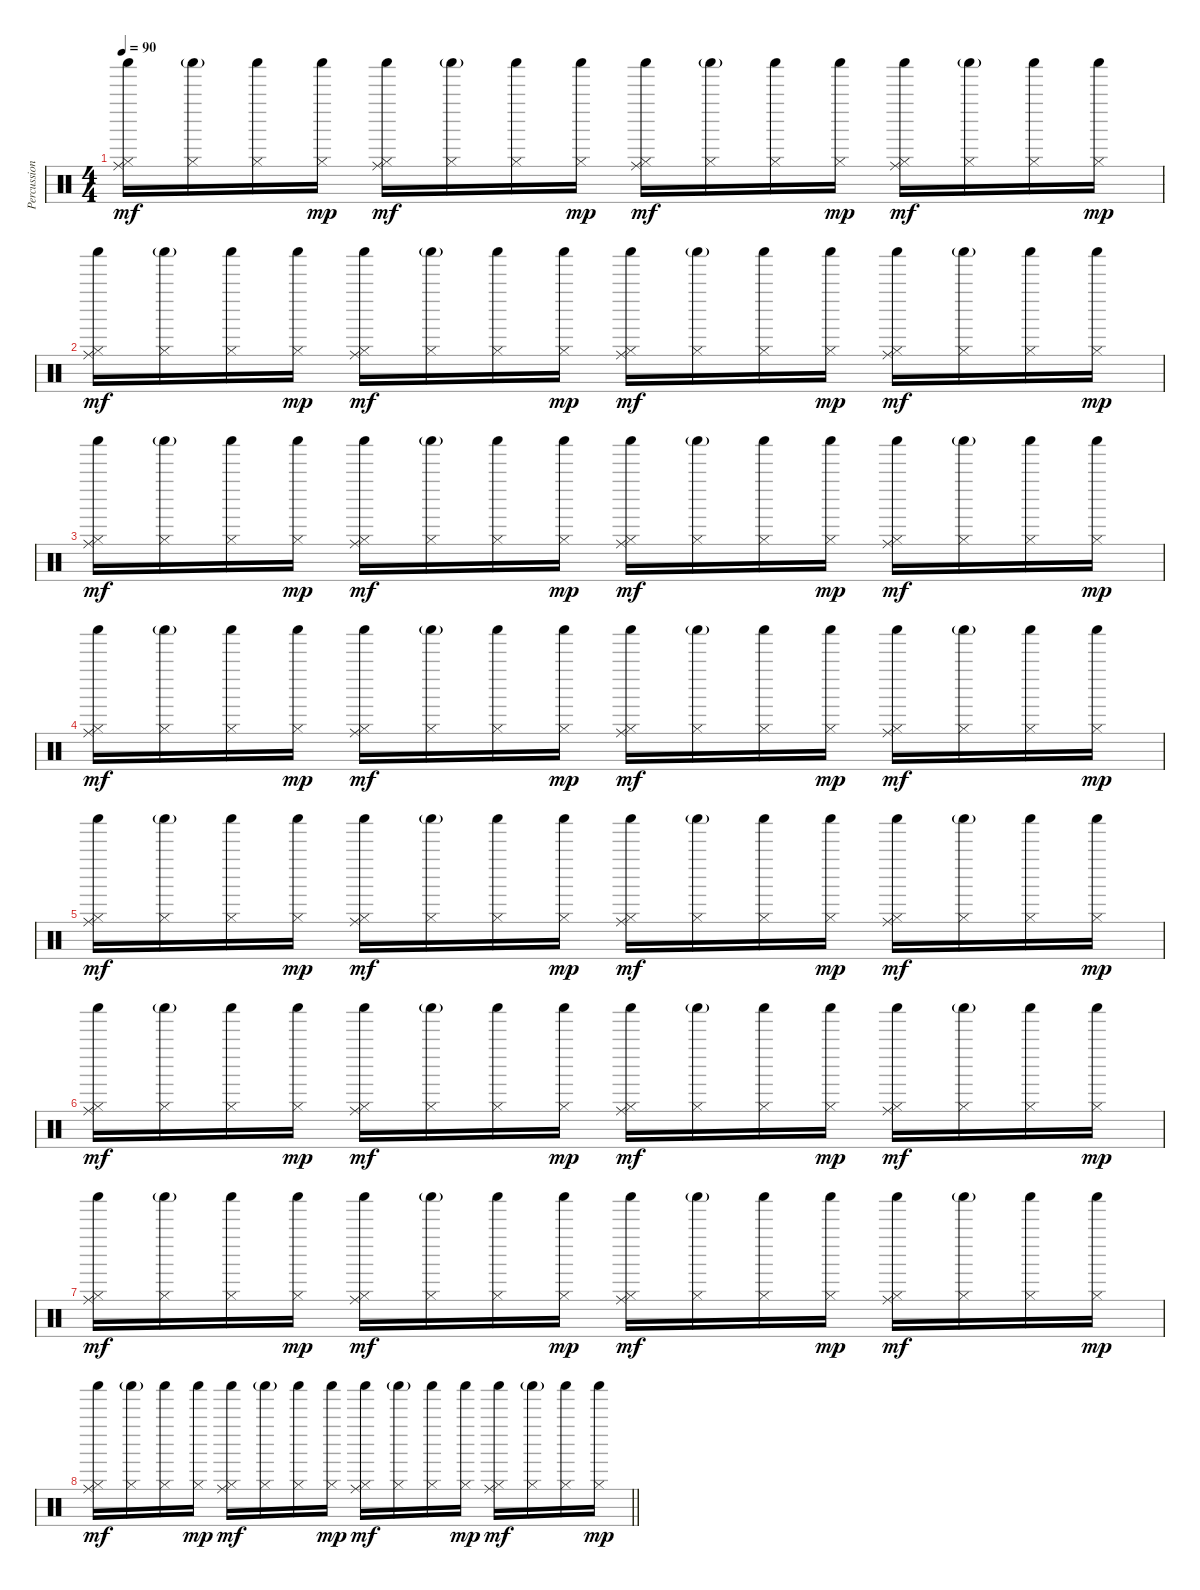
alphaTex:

\track ("Percussion (Chris Maitland)" "Percussion") {instrument percussion}
\staff {score}
\articulation defaults
\ts (4 4)
\tempo 90
\clef neutral
\ks c
("Ride (middle)" "Shaker (hit)" "Hi-Hat (closed)").16{dy mf} ("Shaker (hit)"{g} "Hi-Hat (closed)").16 ("Shaker (hit)" "Hi-Hat (closed)").16 ("Shaker (hit)" "Hi-Hat (closed)").16{dy mp} ("Ride (middle)" "Shaker (hit)" "Hi-Hat (closed)").16{dy mf} ("Shaker (hit)"{g} "Hi-Hat (closed)").16 ("Shaker (hit)" "Hi-Hat (closed)").16 ("Shaker (hit)" "Hi-Hat (closed)").16{dy mp} ("Ride (middle)" "Shaker (hit)" "Hi-Hat (closed)").16{dy mf} ("Shaker (hit)"{g} "Hi-Hat (closed)").16 ("Shaker (hit)" "Hi-Hat (closed)").16 ("Shaker (hit)" "Hi-Hat (closed)").16{dy mp} ("Ride (middle)" "Shaker (hit)" "Hi-Hat (closed)").16{dy mf} ("Shaker (hit)"{g} "Hi-Hat (closed)").16 ("Shaker (hit)" "Hi-Hat (closed)").16 ("Shaker (hit)" "Hi-Hat (closed)").16{dy mp} |
("Ride (middle)" "Shaker (hit)" "Hi-Hat (closed)").16{dy mf} ("Shaker (hit)"{g} "Hi-Hat (closed)").16 ("Shaker (hit)" "Hi-Hat (closed)").16 ("Shaker (hit)" "Hi-Hat (closed)").16{dy mp} ("Ride (middle)" "Shaker (hit)" "Hi-Hat (closed)").16{dy mf} ("Shaker (hit)"{g} "Hi-Hat (closed)").16 ("Shaker (hit)" "Hi-Hat (closed)").16 ("Shaker (hit)" "Hi-Hat (closed)").16{dy mp} ("Ride (middle)" "Shaker (hit)" "Hi-Hat (closed)").16{dy mf} ("Shaker (hit)"{g} "Hi-Hat (closed)").16 ("Shaker (hit)" "Hi-Hat (closed)").16 ("Shaker (hit)" "Hi-Hat (closed)").16{dy mp} ("Ride (middle)" "Shaker (hit)" "Hi-Hat (closed)").16{dy mf} ("Shaker (hit)"{g} "Hi-Hat (closed)").16 ("Shaker (hit)" "Hi-Hat (closed)").16 ("Shaker (hit)" "Hi-Hat (closed)").16{dy mp} |
("Ride (middle)" "Shaker (hit)" "Hi-Hat (closed)").16{dy mf} ("Shaker (hit)"{g} "Hi-Hat (closed)").16 ("Shaker (hit)" "Hi-Hat (closed)").16 ("Shaker (hit)" "Hi-Hat (closed)").16{dy mp} ("Ride (middle)" "Shaker (hit)" "Hi-Hat (closed)").16{dy mf} ("Shaker (hit)"{g} "Hi-Hat (closed)").16 ("Shaker (hit)" "Hi-Hat (closed)").16 ("Shaker (hit)" "Hi-Hat (closed)").16{dy mp} ("Ride (middle)" "Shaker (hit)" "Hi-Hat (closed)").16{dy mf} ("Shaker (hit)"{g} "Hi-Hat (closed)").16 ("Shaker (hit)" "Hi-Hat (closed)").16 ("Shaker (hit)" "Hi-Hat (closed)").16{dy mp} ("Ride (middle)" "Shaker (hit)" "Hi-Hat (closed)").16{dy mf} ("Shaker (hit)"{g} "Hi-Hat (closed)").16 ("Shaker (hit)" "Hi-Hat (closed)").16 ("Shaker (hit)" "Hi-Hat (closed)").16{dy mp} |
("Ride (middle)" "Shaker (hit)" "Hi-Hat (closed)").16{dy mf} ("Shaker (hit)"{g} "Hi-Hat (closed)").16 ("Shaker (hit)" "Hi-Hat (closed)").16 ("Shaker (hit)" "Hi-Hat (closed)").16{dy mp} ("Ride (middle)" "Shaker (hit)" "Hi-Hat (closed)").16{dy mf} ("Shaker (hit)"{g} "Hi-Hat (closed)").16 ("Shaker (hit)" "Hi-Hat (closed)").16 ("Shaker (hit)" "Hi-Hat (closed)").16{dy mp} ("Ride (middle)" "Shaker (hit)" "Hi-Hat (closed)").16{dy mf} ("Shaker (hit)"{g} "Hi-Hat (closed)").16 ("Shaker (hit)" "Hi-Hat (closed)").16 ("Shaker (hit)" "Hi-Hat (closed)").16{dy mp} ("Ride (middle)" "Shaker (hit)" "Hi-Hat (closed)").16{dy mf} ("Shaker (hit)"{g} "Hi-Hat (closed)").16 ("Shaker (hit)" "Hi-Hat (closed)").16 ("Shaker (hit)" "Hi-Hat (closed)").16{dy mp} |
("Ride (middle)" "Shaker (hit)" "Hi-Hat (closed)").16{dy mf} ("Shaker (hit)"{g} "Hi-Hat (closed)").16 ("Shaker (hit)" "Hi-Hat (closed)").16 ("Shaker (hit)" "Hi-Hat (closed)").16{dy mp} ("Ride (middle)" "Shaker (hit)" "Hi-Hat (closed)").16{dy mf} ("Shaker (hit)"{g} "Hi-Hat (closed)").16 ("Shaker (hit)" "Hi-Hat (closed)").16 ("Shaker (hit)" "Hi-Hat (closed)").16{dy mp} ("Ride (middle)" "Shaker (hit)" "Hi-Hat (closed)").16{dy mf} ("Shaker (hit)"{g} "Hi-Hat (closed)").16 ("Shaker (hit)" "Hi-Hat (closed)").16 ("Shaker (hit)" "Hi-Hat (closed)").16{dy mp} ("Ride (middle)" "Shaker (hit)" "Hi-Hat (closed)").16{dy mf} ("Shaker (hit)"{g} "Hi-Hat (closed)").16 ("Shaker (hit)" "Hi-Hat (closed)").16 ("Shaker (hit)" "Hi-Hat (closed)").16{dy mp} |
("Ride (middle)" "Shaker (hit)" "Hi-Hat (closed)").16{dy mf} ("Shaker (hit)"{g} "Hi-Hat (closed)").16 ("Shaker (hit)" "Hi-Hat (closed)").16 ("Shaker (hit)" "Hi-Hat (closed)").16{dy mp} ("Ride (middle)" "Shaker (hit)" "Hi-Hat (closed)").16{dy mf} ("Shaker (hit)"{g} "Hi-Hat (closed)").16 ("Shaker (hit)" "Hi-Hat (closed)").16 ("Shaker (hit)" "Hi-Hat (closed)").16{dy mp} ("Ride (middle)" "Shaker (hit)" "Hi-Hat (closed)").16{dy mf} ("Shaker (hit)"{g} "Hi-Hat (closed)").16 ("Shaker (hit)" "Hi-Hat (closed)").16 ("Shaker (hit)" "Hi-Hat (closed)").16{dy mp} ("Ride (middle)" "Shaker (hit)" "Hi-Hat (closed)").16{dy mf} ("Shaker (hit)"{g} "Hi-Hat (closed)").16 ("Shaker (hit)" "Hi-Hat (closed)").16 ("Shaker (hit)" "Hi-Hat (closed)").16{dy mp} |
("Ride (middle)" "Shaker (hit)" "Hi-Hat (closed)").16{dy mf} ("Shaker (hit)"{g} "Hi-Hat (closed)").16 ("Shaker (hit)" "Hi-Hat (closed)").16 ("Shaker (hit)" "Hi-Hat (closed)").16{dy mp} ("Ride (middle)" "Shaker (hit)" "Hi-Hat (closed)").16{dy mf} ("Shaker (hit)"{g} "Hi-Hat (closed)").16 ("Shaker (hit)" "Hi-Hat (closed)").16 ("Shaker (hit)" "Hi-Hat (closed)").16{dy mp} ("Ride (middle)" "Shaker (hit)" "Hi-Hat (closed)").16{dy mf} ("Shaker (hit)"{g} "Hi-Hat (closed)").16 ("Shaker (hit)" "Hi-Hat (closed)").16 ("Shaker (hit)" "Hi-Hat (closed)").16{dy mp} ("Ride (middle)" "Shaker (hit)" "Hi-Hat (closed)").16{dy mf} ("Shaker (hit)"{g} "Hi-Hat (closed)").16 ("Shaker (hit)" "Hi-Hat (closed)").16 ("Shaker (hit)" "Hi-Hat (closed)").16{dy mp} |
\barLineRight lightlight
("Ride (middle)" "Shaker (hit)" "Hi-Hat (closed)").16{dy mf} ("Shaker (hit)"{g} "Hi-Hat (closed)").16 ("Shaker (hit)" "Hi-Hat (closed)").16 ("Shaker (hit)" "Hi-Hat (closed)").16{dy mp} ("Ride (middle)" "Shaker (hit)" "Hi-Hat (closed)").16{dy mf} ("Shaker (hit)"{g} "Hi-Hat (closed)").16 ("Shaker (hit)" "Hi-Hat (closed)").16 ("Shaker (hit)" "Hi-Hat (closed)").16{dy mp} ("Ride (middle)" "Shaker (hit)" "Hi-Hat (closed)").16{dy mf} ("Shaker (hit)"{g} "Hi-Hat (closed)").16 ("Shaker (hit)" "Hi-Hat (closed)").16 ("Shaker (hit)" "Hi-Hat (closed)").16{dy mp} ("Ride (middle)" "Shaker (hit)" "Hi-Hat (closed)").16{dy mf} ("Shaker (hit)"{g} "Hi-Hat (closed)").16 ("Shaker (hit)" "Hi-Hat (closed)").16 ("Shaker (hit)" "Hi-Hat (closed)").16{dy mp}
